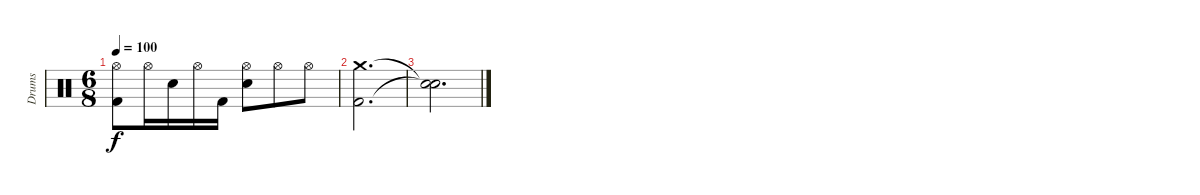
\track ("Drums" "Drums") {instrument percussion}
\staff {score}
\articulation defaults
\ts (6 8)
\tempo 100
\clef neutral
\ks c
("Hi-Hat (open)" "Kick (hit) 2").8{dy f} "Hi-Hat (open)".16 "Snare (hit) 2".16 "Hi-Hat (open)".16 "Kick (hit) 2".16 ("Hi-Hat (open)" "Snare (hit) 2").8 "Hi-Hat (open)".8 "Hi-Hat (open)".8 |
("Crash medium (hit)" "Kick (hit) 2").2{d} |
("Snare (hit)"{t} "Snare (hit)"{t}).2{d}
